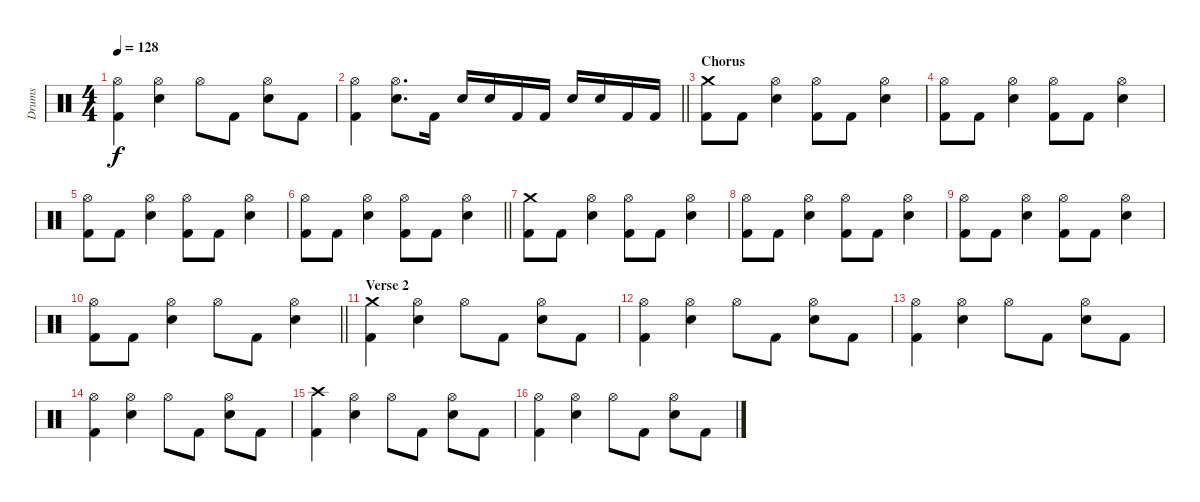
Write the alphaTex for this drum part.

\track ("Drums" "Drums") {instrument percussion}
\staff {score}
\articulation defaults
\ts (4 4)
\tempo 128
\clef neutral
\ks c
("Hi-Hat (open)" "Kick (hit) 2").4{dy f} ("Hi-Hat (open)" "Electric Snare (hit)").4 "Hi-Hat (open)".8 "Kick (hit) 2".8 ("Hi-Hat (open)" "Electric Snare (hit)").8 "Kick (hit) 2".8 |
\barLineRight lightlight
("Hi-Hat (open)" "Kick (hit) 2").4 ("Hi-Hat (open)" "Electric Snare (hit)").8{d} "Kick (hit) 2".16 "Electric Snare (hit)".16 "Electric Snare (hit)".16 "Kick (hit) 2".16 "Kick (hit) 2".16 "Electric Snare (hit)".16 "Electric Snare (hit)".16 "Kick (hit) 2".16 "Kick (hit) 2".16 |
\section ("" "Chorus")
("Crash medium (hit)" "Kick (hit) 2").8 "Kick (hit) 2".8 ("Hi-Hat (open)" "Electric Snare (hit)").4 ("Hi-Hat (open)" "Kick (hit) 2").8 "Kick (hit) 2".8 ("Hi-Hat (open)" "Electric Snare (hit)").4 |
("Hi-Hat (open)" "Kick (hit) 2").8 "Kick (hit) 2".8 ("Hi-Hat (open)" "Electric Snare (hit)").4 ("Hi-Hat (open)" "Kick (hit) 2").8 "Kick (hit) 2".8 ("Hi-Hat (open)" "Electric Snare (hit)").4 |
("Hi-Hat (open)" "Kick (hit) 2").8 "Kick (hit) 2".8 ("Hi-Hat (open)" "Electric Snare (hit)").4 ("Hi-Hat (open)" "Kick (hit) 2").8 "Kick (hit) 2".8 ("Hi-Hat (open)" "Electric Snare (hit)").4 |
\barLineRight lightlight
("Hi-Hat (open)" "Kick (hit) 2").8 "Kick (hit) 2".8 ("Hi-Hat (open)" "Electric Snare (hit)").4 ("Hi-Hat (open)" "Kick (hit) 2").8 "Kick (hit) 2".8 ("Hi-Hat (open)" "Electric Snare (hit)").4 |
("Crash medium (hit)" "Kick (hit) 2").8 "Kick (hit) 2".8 ("Hi-Hat (open)" "Electric Snare (hit)").4 ("Hi-Hat (open)" "Kick (hit) 2").8 "Kick (hit) 2".8 ("Hi-Hat (open)" "Electric Snare (hit)").4 |
("Hi-Hat (open)" "Kick (hit) 2").8 "Kick (hit) 2".8 ("Hi-Hat (open)" "Electric Snare (hit)").4 ("Hi-Hat (open)" "Kick (hit) 2").8 "Kick (hit) 2".8 ("Hi-Hat (open)" "Electric Snare (hit)").4 |
("Hi-Hat (open)" "Kick (hit) 2").8 "Kick (hit) 2".8 ("Hi-Hat (open)" "Electric Snare (hit)").4 ("Hi-Hat (open)" "Kick (hit) 2").8 "Kick (hit) 2".8 ("Hi-Hat (open)" "Electric Snare (hit)").4 |
\barLineRight lightlight
("Hi-Hat (open)" "Kick (hit) 2").8 "Kick (hit) 2".8 ("Hi-Hat (open)" "Electric Snare (hit)").4 "Hi-Hat (open)".8 "Kick (hit) 2".8 ("Hi-Hat (open)" "Electric Snare (hit)").4 |
\section ("" "Verse 2")
("Crash medium (hit)" "Kick (hit) 2").4 ("Hi-Hat (open)" "Electric Snare (hit)").4 "Hi-Hat (open)".8 "Kick (hit) 2".8 ("Hi-Hat (open)" "Electric Snare (hit)").8 "Kick (hit) 2".8 |
("Hi-Hat (open)" "Kick (hit) 2").4 ("Hi-Hat (open)" "Electric Snare (hit)").4 "Hi-Hat (open)".8 "Kick (hit) 2".8 ("Hi-Hat (open)" "Electric Snare (hit)").8 "Kick (hit) 2".8 |
("Hi-Hat (open)" "Kick (hit) 2").4 ("Hi-Hat (open)" "Electric Snare (hit)").4 "Hi-Hat (open)".8 "Kick (hit) 2".8 ("Hi-Hat (open)" "Electric Snare (hit)").8 "Kick (hit) 2".8 |
("Hi-Hat (open)" "Kick (hit) 2").4 ("Hi-Hat (open)" "Electric Snare (hit)").4 "Hi-Hat (open)".8 "Kick (hit) 2".8 ("Hi-Hat (open)" "Electric Snare (hit)").8 "Kick (hit) 2".8 |
("Crash high (hit)" "Kick (hit) 2").4 ("Hi-Hat (open)" "Electric Snare (hit)").4 "Hi-Hat (open)".8 "Kick (hit) 2".8 ("Hi-Hat (open)" "Electric Snare (hit)").8 "Kick (hit) 2".8 |
("Hi-Hat (open)" "Kick (hit) 2").4 ("Hi-Hat (open)" "Electric Snare (hit)").4 "Hi-Hat (open)".8 "Kick (hit) 2".8 ("Hi-Hat (open)" "Electric Snare (hit)").8 "Kick (hit) 2".8
